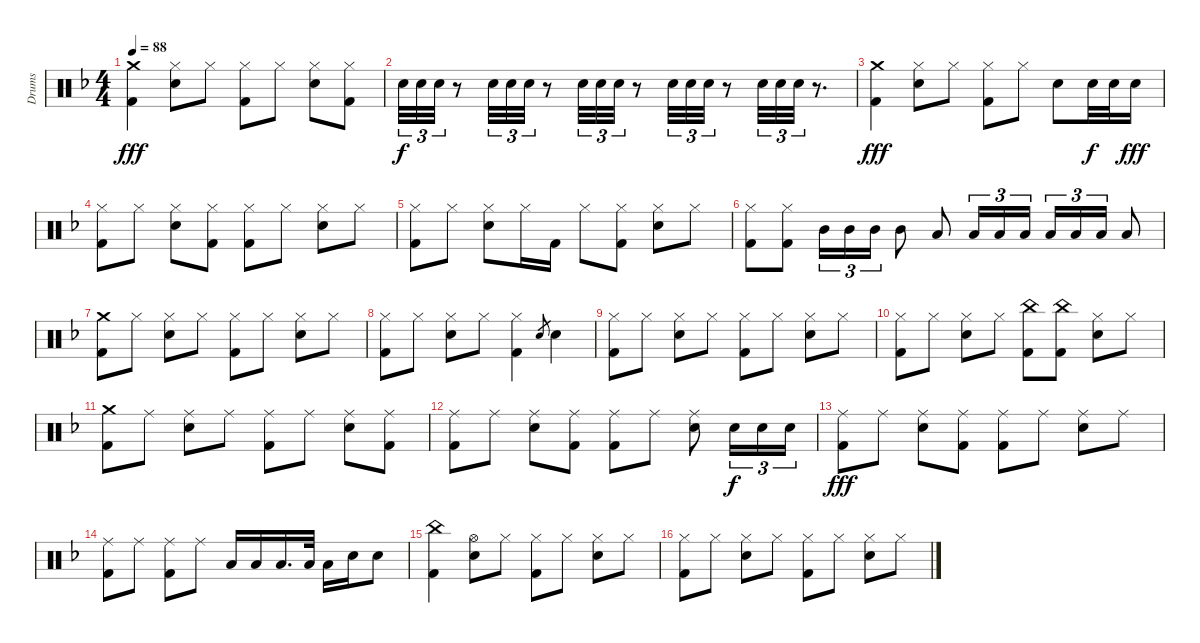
\track ("Drums" "Drums") {instrument percussion}
\staff {score}
\articulation defaults
\ts (4 4)
\tempo 88
\clef neutral
\ks dminor
("Crash medium (hit)" "Kick (hit) 2").4{dy fff} ("Hi-Hat (closed)" "Snare (hit) 2").8 "Hi-Hat (closed)".8 ("Hi-Hat (closed)" "Kick (hit) 2").8 "Hi-Hat (closed)".8 ("Hi-Hat (closed)" "Snare (hit) 2").8 ("Hi-Hat (closed)" "Kick (hit) 2").8 |
"Snare (hit) 2".32{tu (3 2) dy f} "Snare (hit) 2".32{tu (3 2)} "Snare (hit) 2".32{tu (3 2)} r.8 "Snare (hit) 2".32{tu (3 2)} "Snare (hit) 2".32{tu (3 2)} "Snare (hit) 2".32{tu (3 2)} r.8 "Snare (hit) 2".32{tu (3 2)} "Snare (hit) 2".32{tu (3 2)} "Snare (hit) 2".32{tu (3 2)} r.8 "Snare (hit) 2".32{tu (3 2)} "Snare (hit) 2".32{tu (3 2)} "Snare (hit) 2".32{tu (3 2)} r.8 "Snare (hit) 2".32{tu (3 2)} "Snare (hit) 2".32{tu (3 2)} "Snare (hit) 2".32{tu (3 2)} r.8{d} |
("Crash medium (hit)" "Kick (hit) 2").4{dy fff} ("Hi-Hat (closed)" "Snare (hit) 2").8 "Hi-Hat (closed)".8 ("Hi-Hat (closed)" "Kick (hit) 2").8 "Hi-Hat (closed)".8 "Snare (hit) 2".8 "Snare (hit) 2".32{dy f} "Snare (hit) 2".32 "Snare (hit) 2".16{dy fff} |
("Hi-Hat (closed)" "Kick (hit) 2").8 "Hi-Hat (closed)".8 ("Hi-Hat (closed)" "Snare (hit) 2").8 ("Hi-Hat (closed)" "Kick (hit) 2").8 ("Hi-Hat (closed)" "Kick (hit) 2").8 "Hi-Hat (closed)".8 ("Hi-Hat (closed)" "Snare (hit) 2").8 "Hi-Hat (closed)".8 |
("Hi-Hat (closed)" "Kick (hit) 2").8 "Hi-Hat (closed)".8 ("Hi-Hat (closed)" "Snare (hit) 2").8 "Hi-Hat (closed)".16 "Kick (hit) 2".16 "Hi-Hat (closed)".8 ("Hi-Hat (closed)" "Kick (hit) 2").8 ("Hi-Hat (closed)" "Snare (hit) 2").8 "Hi-Hat (closed)".8 |
("Hi-Hat (closed)" "Kick (hit) 2").8 ("Hi-Hat (closed)" "Kick (hit) 2").8 "Mid Tom (hit)".16{tu (3 2)} "Mid Tom (hit)".16{tu (3 2)} "Mid Tom (hit)".16{tu (3 2)} "Mid Tom (hit)".8 "Low Tom (hit)".8 "Low Tom (hit)".16{tu (3 2)} "Low Tom (hit)".16{tu (3 2)} "Low Tom (hit)".16{tu (3 2)} "Low Tom (hit)".16{tu (3 2)} "Low Tom (hit)".16{tu (3 2)} "Low Tom (hit)".16{tu (3 2)} "Low Tom (hit)".8 |
("Crash medium (hit)" "Kick (hit) 2").8 "Hi-Hat (closed)".8 ("Hi-Hat (closed)" "Snare (hit) 2").8 "Hi-Hat (closed)".8 ("Hi-Hat (closed)" "Kick (hit) 2").8 "Hi-Hat (closed)".8 ("Hi-Hat (closed)" "Snare (hit) 2").8 "Hi-Hat (closed)".8 |
("Hi-Hat (closed)" "Kick (hit) 2").8 "Hi-Hat (closed)".8 ("Hi-Hat (closed)" "Snare (hit) 2").8 "Hi-Hat (closed)".8 ("Hi-Hat (closed)" "Kick (hit) 2").4 "Snare (hit) 2".8{gr} "Snare (hit) 2".4 |
("Hi-Hat (closed)" "Kick (hit) 2").8 "Hi-Hat (closed)".8 ("Hi-Hat (closed)" "Snare (hit) 2").8 "Hi-Hat (closed)".8 ("Hi-Hat (closed)" "Kick (hit) 2").8 "Hi-Hat (closed)".8 ("Hi-Hat (closed)" "Snare (hit) 2").8 "Hi-Hat (closed)".8 |
("Hi-Hat (closed)" "Kick (hit) 2").8 "Hi-Hat (closed)".8 ("Hi-Hat (closed)" "Snare (hit) 2").8 "Hi-Hat (closed)".8 ("China (hit)" "Kick (hit) 2").8 ("China (hit)" "Kick (hit) 2").8 ("Hi-Hat (closed)" "Snare (hit) 2").8 "Hi-Hat (closed)".8 |
("Crash medium (hit)" "Kick (hit) 2").8 "Ride (middle)".8 ("Ride (middle)" "Snare (hit) 2").8 "Ride (middle)".8 ("Ride (middle)" "Kick (hit) 2").8 "Ride (middle)".8 ("Ride (middle)" "Snare (hit) 2").8 ("Ride (middle)" "Kick (hit) 2").8 |
("Ride (middle)" "Kick (hit) 2").8 "Ride (middle)".8 ("Ride (middle)" "Snare (hit) 2").8 ("Ride (middle)" "Kick (hit) 2").8 ("Ride (middle)" "Kick (hit) 2").8 "Ride (middle)".8 ("Ride (middle)" "Snare (hit) 2").8 "Snare (hit) 2".16{tu (3 2) dy f} "Snare (hit) 2".16{tu (3 2)} "Snare (hit) 2".16{tu (3 2)} |
("Ride (middle)" "Kick (hit) 2").8{dy fff} "Ride (middle)".8 ("Ride (middle)" "Snare (hit) 2").8 ("Ride (middle)" "Kick (hit) 2").8 ("Ride (middle)" "Kick (hit) 2").8 "Ride (middle)".8 ("Ride (middle)" "Snare (hit) 2").8 "Ride (middle)".8 |
("Ride (middle)" "Kick (hit) 2").8 "Ride (middle)".8 ("Ride (middle)" "Kick (hit) 2").8 "Ride (middle)".8 "Low Tom (hit)".16 "Low Tom (hit)".16 "Low Tom (hit)".16{d} "Low Tom (hit)".32 "Low Tom (hit)".16 "Snare (hit) 2".16 "Snare (hit) 2".8 |
("China (hit)" "Kick (hit) 2").4 ("Hi-Hat (open)" "Snare (hit) 2").8 "Hi-Hat (closed)".8 ("Hi-Hat (closed)" "Kick (hit) 2").8 "Hi-Hat (closed)".8 ("Hi-Hat (closed)" "Snare (hit) 2").8 "Hi-Hat (closed)".8 |
("Hi-Hat (closed)" "Kick (hit) 2").8 "Hi-Hat (closed)".8 ("Hi-Hat (closed)" "Snare (hit) 2").8 "Hi-Hat (closed)".8 ("Hi-Hat (closed)" "Kick (hit) 2").8 "Hi-Hat (closed)".8 ("Hi-Hat (closed)" "Snare (hit) 2").8 "Hi-Hat (closed)".8
